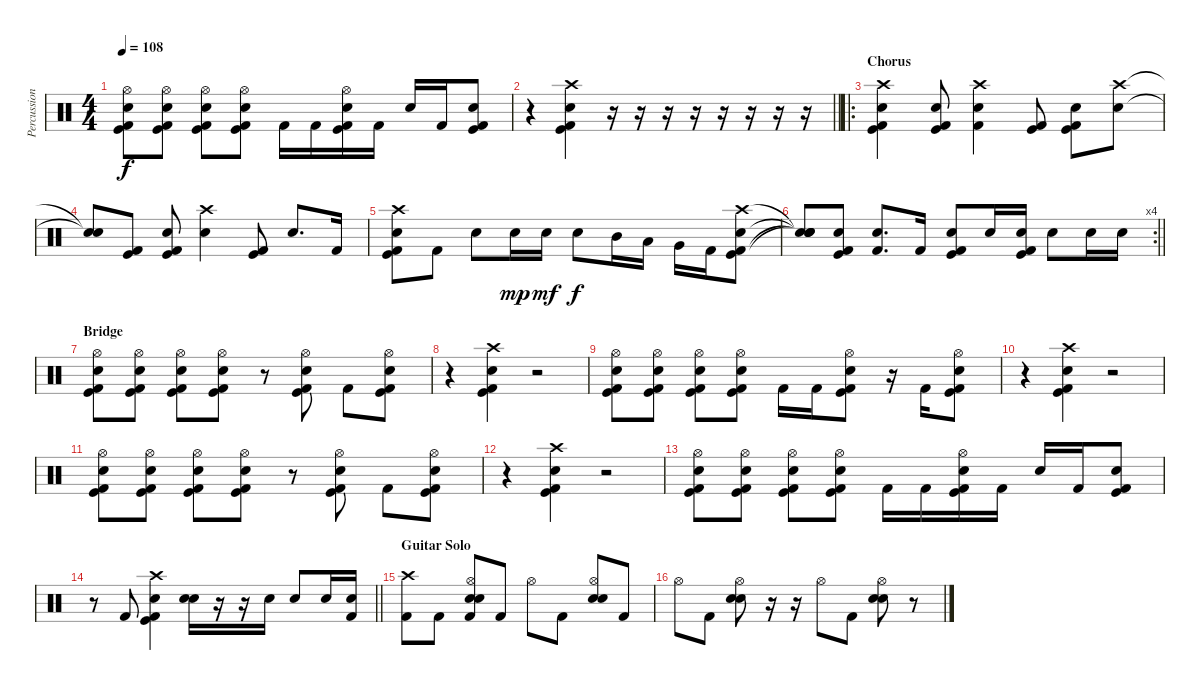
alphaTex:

\track ("Percussion" "Percussion") {instrument percussion}
\staff {score}
\articulation defaults
\ts (4 4)
\tempo 108
\clef neutral
\ks c
("Kick (hit)" "Kick (hit) 2" "Snare (hit) 2" "Hi-Hat (open)").8{dy f} ("Kick (hit)" "Kick (hit) 2" "Snare (hit) 2" "Hi-Hat (open)").8 ("Kick (hit)" "Kick (hit) 2" "Snare (hit) 2" "Hi-Hat (open)").8 ("Kick (hit)" "Kick (hit) 2" "Snare (hit) 2" "Hi-Hat (open)").8 "Kick (hit) 2".16 "Kick (hit) 2".16 ("Kick (hit)" "Kick (hit) 2" "Snare (hit) 2" "Hi-Hat (open)").16 "Kick (hit) 2".16 "Snare (hit) 2".16 "Kick (hit) 2".16 ("Kick (hit)" "Kick (hit) 2" "Snare (hit) 2").8 |
\barLineRight lightlight
r.4 ("Kick (hit)" "Kick (hit) 2" "Snare (hit) 2" "Crash high (hit)").4 r.16 r.16 r.16 r.16 r.16 r.16 r.16 r.16 |
\ro
\section ("" "Chorus")
("Kick (hit)" "Snare (hit) 2" "Kick (hit) 2" "Crash high (hit)").4 ("Kick (hit) 2" "Snare (hit) 2" "Kick (hit)").8 ("Kick (hit) 2" "Snare (hit) 2" "Crash high (hit)").4 ("Kick (hit) 2" "Kick (hit)").8 ("Kick (hit) 2" "Snare (hit) 2" "Kick (hit)").8 ("Snare (hit) 2" "Crash high (hit)").8 |
("Snare (hit)"{t} "Snare (hit)"{t}).8 ("Kick (hit) 2" "Kick (hit)").8 ("Kick (hit) 2" "Snare (hit) 2" "Kick (hit)").8 ("Snare (hit) 2" "Crash high (hit)").4 ("Kick (hit) 2" "Kick (hit)").8 "Snare (hit) 2".8{d} "Kick (hit) 2".16 |
("Kick (hit) 2" "Snare (hit) 2" "Kick (hit)" "Crash high (hit)").8 "Kick (hit) 2".8 "Snare (hit) 2".8 "Snare (hit) 2".16{dy mp} "Snare (hit) 2".16{dy mf} "Snare (hit) 2".8{dy f} "Mid Tom (hit)".16 "Low Tom (hit)".16 "Very Low Tom (hit)".16 "Kick (hit) 2".16 ("Kick (hit) 2" "Snare (hit) 2" "Kick (hit)" "Crash high (hit)").8 |
\rc 4
\barLineRight lightlight
("Snare (hit)"{t} "Snare (hit)"{t} "Snare (hit)"{t} "Snare (hit)"{t}).8 ("Kick (hit) 2" "Snare (hit) 2" "Kick (hit)").8 ("Kick (hit) 2" "Snare (hit) 2").8{d} "Kick (hit) 2".16 ("Kick (hit) 2" "Snare (hit) 2" "Kick (hit)").8 "Snare (hit) 2".16 ("Kick (hit) 2" "Snare (hit) 2" "Kick (hit)").16 "Snare (hit) 2".8 "Snare (hit) 2".16 "Snare (hit) 2".16 |
\section ("" "Bridge")
("Kick (hit)" "Kick (hit) 2" "Snare (hit) 2" "Hi-Hat (open)").8 ("Kick (hit)" "Kick (hit) 2" "Snare (hit) 2" "Hi-Hat (open)").8 ("Kick (hit)" "Kick (hit) 2" "Snare (hit) 2" "Hi-Hat (open)").8 ("Kick (hit)" "Kick (hit) 2" "Snare (hit) 2" "Hi-Hat (open)").8 r.8 ("Kick (hit)" "Kick (hit) 2" "Snare (hit) 2" "Hi-Hat (open)").8 "Kick (hit) 2".8 ("Kick (hit)" "Kick (hit) 2" "Snare (hit) 2" "Hi-Hat (open)").8 |
r.4 ("Kick (hit)" "Kick (hit) 2" "Snare (hit) 2" "Crash high (hit)").4 r.2 |
("Kick (hit)" "Kick (hit) 2" "Snare (hit) 2" "Hi-Hat (open)").8 ("Kick (hit)" "Kick (hit) 2" "Snare (hit) 2" "Hi-Hat (open)").8 ("Kick (hit)" "Kick (hit) 2" "Snare (hit) 2" "Hi-Hat (open)").8 ("Kick (hit)" "Kick (hit) 2" "Snare (hit) 2" "Hi-Hat (open)").8 "Kick (hit) 2".16 "Kick (hit) 2".16 ("Kick (hit)" "Kick (hit) 2" "Snare (hit) 2" "Hi-Hat (open)").8 r.16 "Kick (hit) 2".16 ("Kick (hit)" "Kick (hit) 2" "Snare (hit) 2" "Hi-Hat (open)").8 |
r.4 ("Kick (hit)" "Kick (hit) 2" "Snare (hit) 2" "Crash high (hit)").4 r.2 |
("Kick (hit)" "Kick (hit) 2" "Snare (hit) 2" "Hi-Hat (open)").8 ("Kick (hit)" "Kick (hit) 2" "Snare (hit) 2" "Hi-Hat (open)").8 ("Kick (hit)" "Kick (hit) 2" "Snare (hit) 2" "Hi-Hat (open)").8 ("Kick (hit)" "Kick (hit) 2" "Snare (hit) 2" "Hi-Hat (open)").8 r.8 ("Kick (hit)" "Kick (hit) 2" "Snare (hit) 2" "Hi-Hat (open)").8 "Kick (hit) 2".8 ("Kick (hit)" "Kick (hit) 2" "Snare (hit) 2" "Hi-Hat (open)").8 |
r.4 ("Kick (hit)" "Kick (hit) 2" "Snare (hit) 2" "Crash high (hit)").4 r.2 |
("Kick (hit)" "Kick (hit) 2" "Snare (hit) 2" "Hi-Hat (open)").8 ("Kick (hit)" "Kick (hit) 2" "Snare (hit) 2" "Hi-Hat (open)").8 ("Kick (hit)" "Kick (hit) 2" "Snare (hit) 2" "Hi-Hat (open)").8 ("Kick (hit)" "Kick (hit) 2" "Snare (hit) 2" "Hi-Hat (open)").8 "Kick (hit) 2".16 "Kick (hit) 2".16 ("Kick (hit)" "Kick (hit) 2" "Snare (hit) 2" "Hi-Hat (open)").16 "Kick (hit) 2".16 "Snare (hit) 2".16 "Kick (hit) 2".16 ("Kick (hit)" "Kick (hit) 2" "Snare (hit) 2").8 |
\barLineRight lightlight
r.8 "Kick (hit) 2".8 ("Kick (hit)" "Kick (hit) 2" "Snare (hit) 2" "Crash high (hit)").4 ("Electric Snare (hit)" "Snare (hit) 2").16 r.16 r.16 "Snare (hit) 2".16 "Snare (hit) 2".8 "Snare (hit) 2".16 ("Snare (hit) 2" "Kick (hit) 2").16 |
\section ("" "Guitar Solo")
("Crash high (hit)" "Kick (hit) 2").8 "Kick (hit) 2".8 ("Hi-Hat (open)" "Electric Snare (hit)" "Snare (hit) 2" "Kick (hit) 2").8 "Kick (hit) 2".8 "Hi-Hat (open)".8 "Kick (hit) 2".8 ("Hi-Hat (open)" "Electric Snare (hit)" "Snare (hit) 2").8 "Kick (hit) 2".8 |
"Hi-Hat (open)".8 "Kick (hit) 2".8 ("Hi-Hat (open)" "Electric Snare (hit)" "Snare (hit) 2").8 r.16 r.16 "Hi-Hat (open)".8 "Kick (hit) 2".8 ("Hi-Hat (open)" "Electric Snare (hit)" "Snare (hit) 2").8 r.8
